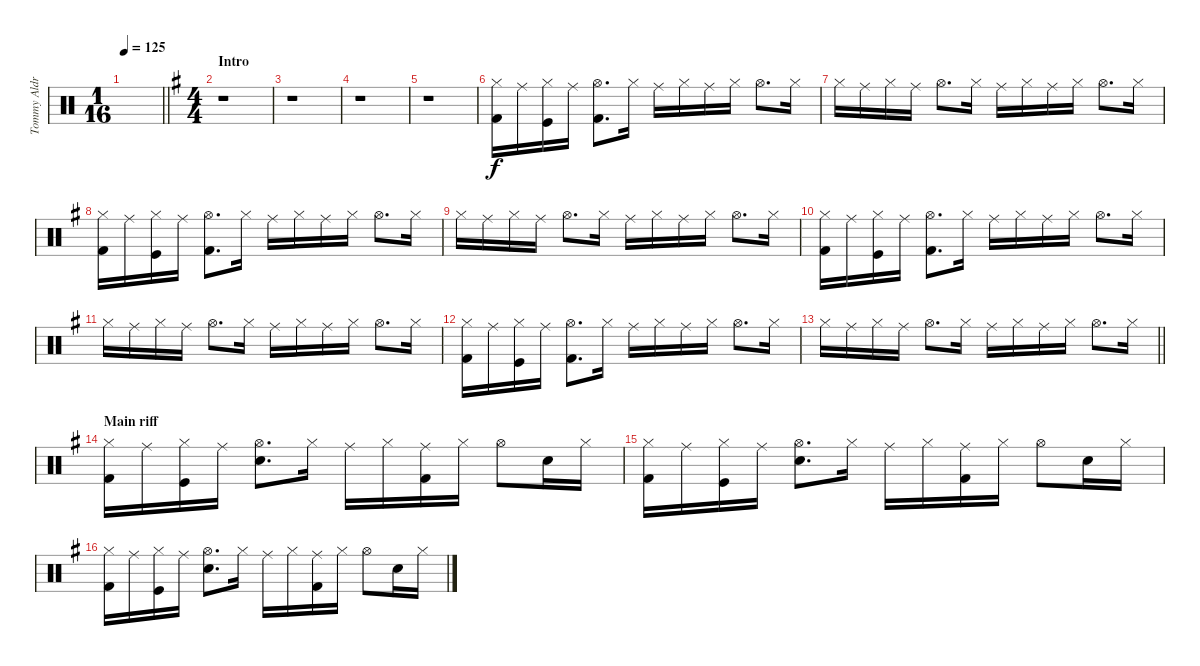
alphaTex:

\track ("Tommy Aldridge" "Tommy Aldr") {instrument percussion}
\staff {score}
\articulation defaults
\ts (1 16)
\tempo 125
\clef neutral
\barLineRight lightlight
\ks c
|
\ts (4 4)
\section ("" "Intro")
\ks eminor
r.1 |
r.1 |
r.1 |
r.1 |
("Hi-Hat (closed)" "Kick (hit) 2").16 "Ride (middle)".16 ("Hi-Hat (closed)" "Kick (hit)").16 "Ride (middle)".16 ("Hi-Hat (open)" "Kick (hit) 2").8{d} "Hi-Hat (closed)".16 "Ride (middle)".16 "Hi-Hat (closed)".16 "Ride (middle)".16 "Hi-Hat (closed)".16 "Hi-Hat (open)".8{d} "Hi-Hat (closed)".16 |
"Hi-Hat (closed)".16 "Ride (middle)".16 "Hi-Hat (closed)".16 "Ride (middle)".16 "Hi-Hat (open)".8{d} "Hi-Hat (closed)".16 "Ride (middle)".16 "Hi-Hat (closed)".16 "Ride (middle)".16 "Hi-Hat (closed)".16 "Hi-Hat (open)".8{d} "Hi-Hat (closed)".16 |
("Hi-Hat (closed)" "Kick (hit) 2").16 "Ride (middle)".16 ("Hi-Hat (closed)" "Kick (hit)").16 "Ride (middle)".16 ("Hi-Hat (open)" "Kick (hit) 2").8{d} "Hi-Hat (closed)".16 "Ride (middle)".16 "Hi-Hat (closed)".16 "Ride (middle)".16 "Hi-Hat (closed)".16 "Hi-Hat (open)".8{d} "Hi-Hat (closed)".16 |
"Hi-Hat (closed)".16 "Ride (middle)".16 "Hi-Hat (closed)".16 "Ride (middle)".16 "Hi-Hat (open)".8{d} "Hi-Hat (closed)".16 "Ride (middle)".16 "Hi-Hat (closed)".16 "Ride (middle)".16 "Hi-Hat (closed)".16 "Hi-Hat (open)".8{d} "Hi-Hat (closed)".16 |
("Hi-Hat (closed)" "Kick (hit) 2").16 "Ride (middle)".16 ("Hi-Hat (closed)" "Kick (hit)").16 "Ride (middle)".16 ("Hi-Hat (open)" "Kick (hit) 2").8{d} "Hi-Hat (closed)".16 "Ride (middle)".16 "Hi-Hat (closed)".16 "Ride (middle)".16 "Hi-Hat (closed)".16 "Hi-Hat (open)".8{d} "Hi-Hat (closed)".16 |
"Hi-Hat (closed)".16 "Ride (middle)".16 "Hi-Hat (closed)".16 "Ride (middle)".16 "Hi-Hat (open)".8{d} "Hi-Hat (closed)".16 "Ride (middle)".16 "Hi-Hat (closed)".16 "Ride (middle)".16 "Hi-Hat (closed)".16 "Hi-Hat (open)".8{d} "Hi-Hat (closed)".16 |
("Hi-Hat (closed)" "Kick (hit) 2").16 "Ride (middle)".16 ("Hi-Hat (closed)" "Kick (hit)").16 "Ride (middle)".16 ("Hi-Hat (open)" "Kick (hit) 2").8{d} "Hi-Hat (closed)".16 "Ride (middle)".16 "Hi-Hat (closed)".16 "Ride (middle)".16 "Hi-Hat (closed)".16 "Hi-Hat (open)".8{d} "Hi-Hat (closed)".16 |
\barLineRight lightlight "Hi-Hat (closed)".16 "Ride (middle)".16 "Hi-Hat (closed)".16 "Ride (middle)".16 "Hi-Hat (open)".8{d} "Hi-Hat (closed)".16 "Ride (middle)".16 "Hi-Hat (closed)".16 "Ride (middle)".16 "Hi-Hat (closed)".16 "Hi-Hat (open)".8{d} "Hi-Hat (closed)".16
|
\section ("" "Main riff")
("Hi-Hat (closed)" "Kick (hit) 2").16 "Ride (middle)".16 ("Hi-Hat (closed)" "Kick (hit)").16 "Ride (middle)".16 ("Hi-Hat (open)" "Snare (hit) 2").8{d} "Hi-Hat (closed)".16 "Ride (middle)".16 "Hi-Hat (closed)".16 ("Ride (middle)" "Kick (hit) 2").16 "Hi-Hat (closed)".16 "Hi-Hat (open)".8 "Snare (hit) 2".16 "Hi-Hat (closed)".16 |
("Hi-Hat (closed)" "Kick (hit) 2").16 "Ride (middle)".16 ("Hi-Hat (closed)" "Kick (hit)").16 "Ride (middle)".16 ("Hi-Hat (open)" "Snare (hit) 2").8{d} "Hi-Hat (closed)".16 "Ride (middle)".16 "Hi-Hat (closed)".16 ("Ride (middle)" "Kick (hit) 2").16 "Hi-Hat (closed)".16 "Hi-Hat (open)".8 "Snare (hit) 2".16 "Hi-Hat (closed)".16 |
("Hi-Hat (closed)" "Kick (hit) 2").16 "Ride (middle)".16 ("Hi-Hat (closed)" "Kick (hit)").16 "Ride (middle)".16 ("Hi-Hat (open)" "Snare (hit) 2").8{d} "Hi-Hat (closed)".16 "Ride (middle)".16 "Hi-Hat (closed)".16 ("Ride (middle)" "Kick (hit) 2").16 "Hi-Hat (closed)".16 "Hi-Hat (open)".8 "Snare (hit) 2".16 "Hi-Hat (closed)".16
